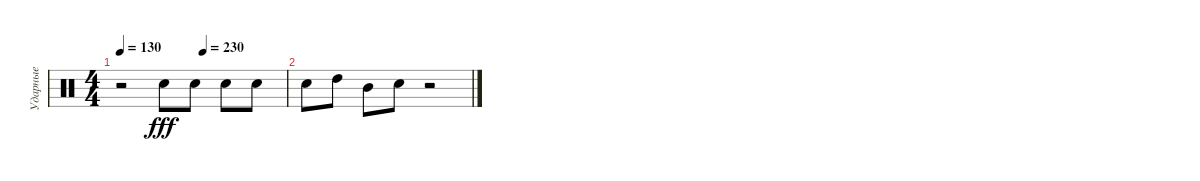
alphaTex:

\track ("Ударные" "Ударные") {instrument percussion}
\staff {score}
\articulation defaults
\ts (4 4)
\tempo 130
\tempo (230 0.5)
\clef neutral
\ks c
r.2{dy f} "Snare (hit) 2".8{dy fff} "Snare (hit) 2".8 "Snare (hit) 2".8 "Snare (hit) 2".8 |
"Snare (hit) 2".8 "High Tom (hit)".8 "Mid Tom (hit)".8 "Snare (hit) 2".8 r.2
